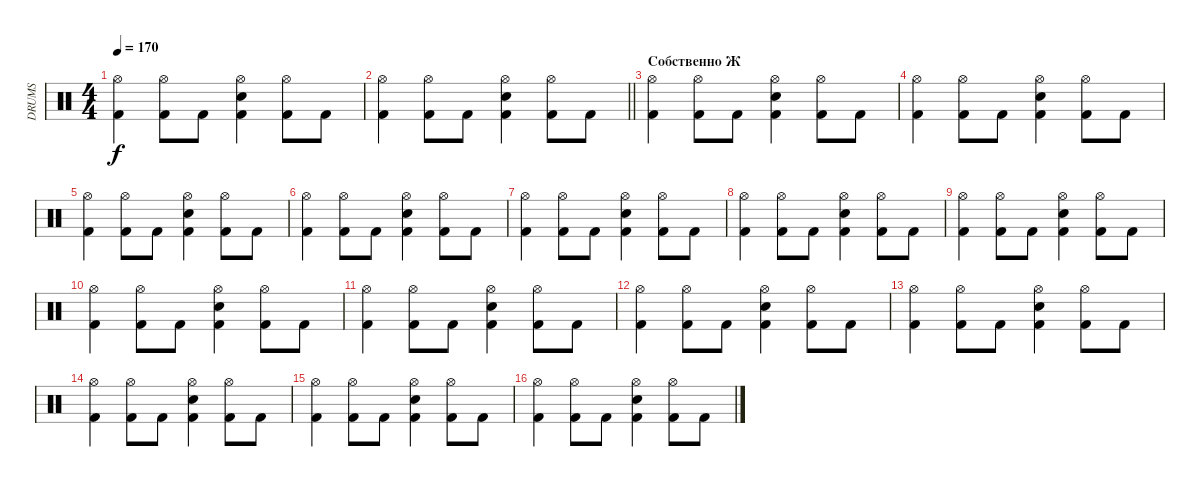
\track ("DRUMS" "DRUMS") {instrument percussion}
\staff {score}
\articulation defaults
\ts (4 4)
\tempo 170
\clef neutral
\ks c
("Hi-Hat (open)" "Kick (hit) 2").4{dy f} ("Hi-Hat (open)" "Kick (hit) 2").8 "Kick (hit) 2".8 ("Hi-Hat (open)" "Snare (hit) 2" "Kick (hit) 2").4 ("Hi-Hat (open)" "Kick (hit) 2").8 "Kick (hit) 2".8 |
\barLineRight lightlight
("Hi-Hat (open)" "Kick (hit) 2").4 ("Hi-Hat (open)" "Kick (hit) 2").8 "Kick (hit) 2".8 ("Hi-Hat (open)" "Snare (hit) 2" "Kick (hit) 2").4 ("Hi-Hat (open)" "Kick (hit) 2").8 "Kick (hit) 2".8 |
\section ("" "Собственно Ж")
("Hi-Hat (open)" "Kick (hit) 2").4 ("Hi-Hat (open)" "Kick (hit) 2").8 "Kick (hit) 2".8 ("Hi-Hat (open)" "Snare (hit) 2" "Kick (hit) 2").4 ("Hi-Hat (open)" "Kick (hit) 2").8 "Kick (hit) 2".8 |
("Hi-Hat (open)" "Kick (hit) 2").4 ("Hi-Hat (open)" "Kick (hit) 2").8 "Kick (hit) 2".8 ("Hi-Hat (open)" "Snare (hit) 2" "Kick (hit) 2").4 ("Hi-Hat (open)" "Kick (hit) 2").8 "Kick (hit) 2".8 |
("Hi-Hat (open)" "Kick (hit) 2").4 ("Hi-Hat (open)" "Kick (hit) 2").8 "Kick (hit) 2".8 ("Hi-Hat (open)" "Snare (hit) 2" "Kick (hit) 2").4 ("Hi-Hat (open)" "Kick (hit) 2").8 "Kick (hit) 2".8 |
("Hi-Hat (open)" "Kick (hit) 2").4 ("Hi-Hat (open)" "Kick (hit) 2").8 "Kick (hit) 2".8 ("Hi-Hat (open)" "Snare (hit) 2" "Kick (hit) 2").4 ("Hi-Hat (open)" "Kick (hit) 2").8 "Kick (hit) 2".8 |
("Hi-Hat (open)" "Kick (hit) 2").4 ("Hi-Hat (open)" "Kick (hit) 2").8 "Kick (hit) 2".8 ("Hi-Hat (open)" "Snare (hit) 2" "Kick (hit) 2").4 ("Hi-Hat (open)" "Kick (hit) 2").8 "Kick (hit) 2".8 |
("Hi-Hat (open)" "Kick (hit) 2").4 ("Hi-Hat (open)" "Kick (hit) 2").8 "Kick (hit) 2".8 ("Hi-Hat (open)" "Snare (hit) 2" "Kick (hit) 2").4 ("Hi-Hat (open)" "Kick (hit) 2").8 "Kick (hit) 2".8 |
("Hi-Hat (open)" "Kick (hit) 2").4 ("Hi-Hat (open)" "Kick (hit) 2").8 "Kick (hit) 2".8 ("Hi-Hat (open)" "Snare (hit) 2" "Kick (hit) 2").4 ("Hi-Hat (open)" "Kick (hit) 2").8 "Kick (hit) 2".8 |
("Hi-Hat (open)" "Kick (hit) 2").4 ("Hi-Hat (open)" "Kick (hit) 2").8 "Kick (hit) 2".8 ("Hi-Hat (open)" "Snare (hit) 2" "Kick (hit) 2").4 ("Hi-Hat (open)" "Kick (hit) 2").8 "Kick (hit) 2".8 |
("Hi-Hat (open)" "Kick (hit) 2").4 ("Hi-Hat (open)" "Kick (hit) 2").8 "Kick (hit) 2".8 ("Hi-Hat (open)" "Snare (hit) 2" "Kick (hit) 2").4 ("Hi-Hat (open)" "Kick (hit) 2").8 "Kick (hit) 2".8 |
("Hi-Hat (open)" "Kick (hit) 2").4 ("Hi-Hat (open)" "Kick (hit) 2").8 "Kick (hit) 2".8 ("Hi-Hat (open)" "Snare (hit) 2" "Kick (hit) 2").4 ("Hi-Hat (open)" "Kick (hit) 2").8 "Kick (hit) 2".8 |
("Hi-Hat (open)" "Kick (hit) 2").4 ("Hi-Hat (open)" "Kick (hit) 2").8 "Kick (hit) 2".8 ("Hi-Hat (open)" "Snare (hit) 2" "Kick (hit) 2").4 ("Hi-Hat (open)" "Kick (hit) 2").8 "Kick (hit) 2".8 |
("Hi-Hat (open)" "Kick (hit) 2").4 ("Hi-Hat (open)" "Kick (hit) 2").8 "Kick (hit) 2".8 ("Hi-Hat (open)" "Snare (hit) 2" "Kick (hit) 2").4 ("Hi-Hat (open)" "Kick (hit) 2").8 "Kick (hit) 2".8 |
("Hi-Hat (open)" "Kick (hit) 2").4 ("Hi-Hat (open)" "Kick (hit) 2").8 "Kick (hit) 2".8 ("Hi-Hat (open)" "Snare (hit) 2" "Kick (hit) 2").4 ("Hi-Hat (open)" "Kick (hit) 2").8 "Kick (hit) 2".8 |
("Hi-Hat (open)" "Kick (hit) 2").4 ("Hi-Hat (open)" "Kick (hit) 2").8 "Kick (hit) 2".8 ("Hi-Hat (open)" "Snare (hit) 2" "Kick (hit) 2").4 ("Hi-Hat (open)" "Kick (hit) 2").8 "Kick (hit) 2".8
